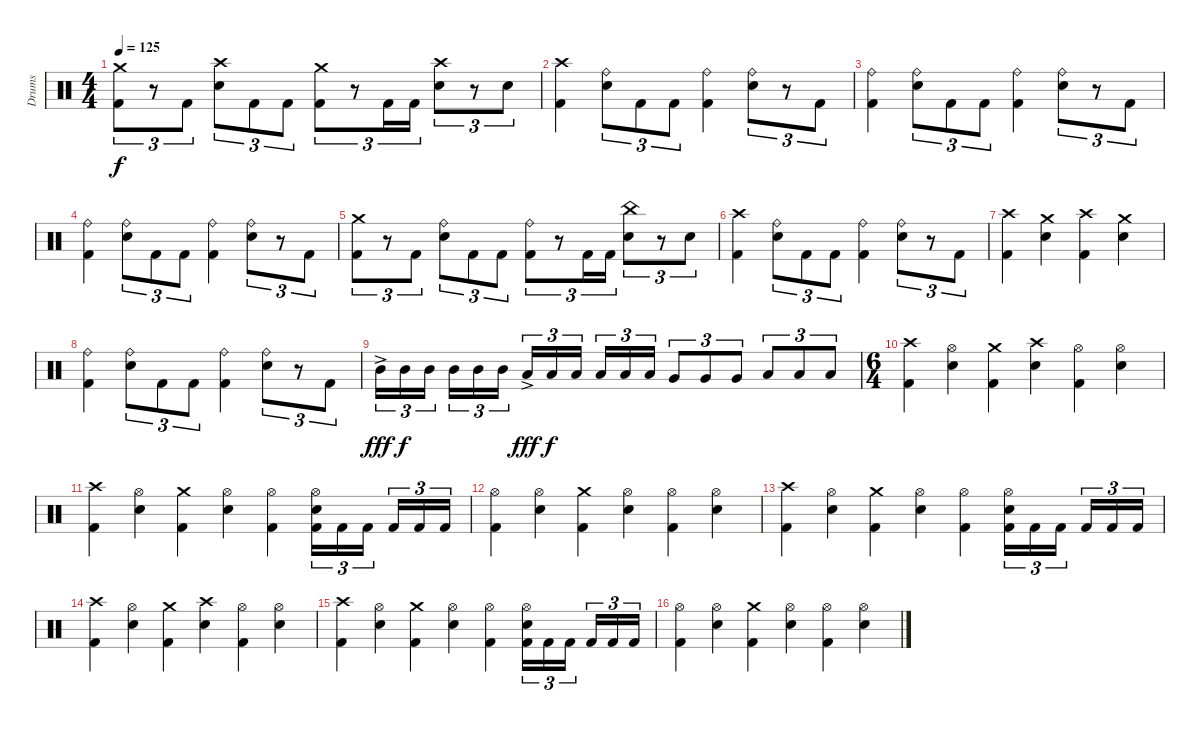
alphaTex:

\track ("Drums" "Drums") {instrument percussion}
\staff {score}
\articulation defaults
\ts (4 4)
\tempo 125
\clef neutral
\ks c
("Crash medium (hit)" "Kick (hit) 2").8{tu (3 2) dy f} r.8{tu (3 2)} "Kick (hit) 2".8{tu (3 2)} ("Crash high (hit)" "Electric Snare (hit)").8{tu (3 2)} "Kick (hit) 2".8{tu (3 2)} "Kick (hit) 2".8{tu (3 2)} ("Crash medium (hit)" "Kick (hit) 2").8{tu (3 2)} r.8{tu (3 2)} "Kick (hit) 2".16{tu (3 2)} "Kick (hit) 2".16{tu (3 2)} ("Crash high (hit)" "Electric Snare (hit)").8{tu (3 2)} r.8{tu (3 2)} "Electric Snare (hit)".8{tu (3 2)} |
("Crash high (hit)" "Kick (hit) 2").4 ("Ride (bell)" "Electric Snare (hit)").8{tu (3 2)} "Kick (hit) 2".8{tu (3 2)} "Kick (hit) 2".8{tu (3 2)} ("Ride (bell)" "Kick (hit) 2").4 ("Ride (bell)" "Electric Snare (hit)").8{tu (3 2)} r.8{tu (3 2)} "Kick (hit) 2".8{tu (3 2)} |
("Ride (bell)" "Kick (hit) 2").4 ("Ride (bell)" "Electric Snare (hit)").8{tu (3 2)} "Kick (hit) 2".8{tu (3 2)} "Kick (hit) 2".8{tu (3 2)} ("Ride (bell)" "Kick (hit) 2").4 ("Ride (bell)" "Electric Snare (hit)").8{tu (3 2)} r.8{tu (3 2)} "Kick (hit) 2".8{tu (3 2)} |
("Ride (bell)" "Kick (hit) 2").4 ("Ride (bell)" "Electric Snare (hit)").8{tu (3 2)} "Kick (hit) 2".8{tu (3 2)} "Kick (hit) 2".8{tu (3 2)} ("Ride (bell)" "Kick (hit) 2").4 ("Ride (bell)" "Electric Snare (hit)").8{tu (3 2)} r.8{tu (3 2)} "Kick (hit) 2".8{tu (3 2)} |
("Crash medium (hit)" "Kick (hit) 2").8{tu (3 2)} r.8{tu (3 2)} "Kick (hit) 2".8{tu (3 2)} ("Ride (bell)" "Electric Snare (hit)").8{tu (3 2)} "Kick (hit) 2".8{tu (3 2)} "Kick (hit) 2".8{tu (3 2)} ("Ride (bell)" "Kick (hit) 2").8{tu (3 2)} r.8{tu (3 2)} "Kick (hit) 2".16{tu (3 2)} "Kick (hit) 2".16{tu (3 2)} ("China (hit)" "Electric Snare (hit)").8{tu (3 2)} r.8{tu (3 2)} "Electric Snare (hit)".8{tu (3 2)} |
("Crash high (hit)" "Kick (hit) 2").4 ("Ride (bell)" "Electric Snare (hit)").8{tu (3 2)} "Kick (hit) 2".8{tu (3 2)} "Kick (hit) 2".8{tu (3 2)} ("Ride (bell)" "Kick (hit) 2").4 ("Ride (bell)" "Electric Snare (hit)").8{tu (3 2)} r.8{tu (3 2)} "Kick (hit) 2".8{tu (3 2)} |
("Crash high (hit)" "Kick (hit) 2").4 ("Crash medium (hit)" "Electric Snare (hit)").4 ("Crash high (hit)" "Kick (hit) 2").4 ("Crash medium (hit)" "Electric Snare (hit)").4 |
("Ride (bell)" "Kick (hit) 2").4 ("Ride (bell)" "Electric Snare (hit)").8{tu (3 2)} "Kick (hit) 2".8{tu (3 2)} "Kick (hit) 2".8{tu (3 2)} ("Ride (bell)" "Kick (hit) 2").4 ("Ride (bell)" "Electric Snare (hit)").8{tu (3 2)} r.8{tu (3 2)} "Kick (hit) 2".8{tu (3 2)} |
"Mid Tom (hit)"{ac}.16{tu (3 2) dy fff} "Mid Tom (hit)".16{tu (3 2) dy f} "Mid Tom (hit)".16{tu (3 2)} "Mid Tom (hit)".16{tu (3 2)} "Mid Tom (hit)".16{tu (3 2)} "Mid Tom (hit)".16{tu (3 2)} "Low Tom (hit)"{ac}.16{tu (3 2) dy fff} "Low Tom (hit)".16{tu (3 2) dy f} "Low Tom (hit)".16{tu (3 2)} "Low Tom (hit)".16{tu (3 2)} "Low Tom (hit)".16{tu (3 2)} "Low Tom (hit)".16{tu (3 2)} "Very Low Tom (hit)".8{tu (3 2)} "Very Low Tom (hit)".8{tu (3 2)} "Very Low Tom (hit)".8{tu (3 2)} "Low Floor Tom (hit)".8{tu (3 2)} "Low Floor Tom (hit)".8{tu (3 2)} "Low Floor Tom (hit)".8{tu (3 2)} |
\ts (6 4)
("Crash high (hit)" "Kick (hit) 2").4 ("Hi-Hat (open)" "Electric Snare (hit)").4 ("Crash medium (hit)" "Kick (hit) 2").4 ("Crash high (hit)" "Electric Snare (hit)").4 ("Hi-Hat (open)" "Kick (hit) 2").4 ("Hi-Hat (open)" "Electric Snare (hit)").4 |
("Crash high (hit)" "Kick (hit) 2").4 ("Hi-Hat (open)" "Electric Snare (hit)").4 ("Crash medium (hit)" "Kick (hit) 2").4 ("Hi-Hat (open)" "Electric Snare (hit)").4 ("Hi-Hat (open)" "Kick (hit) 2").4 ("Hi-Hat (open)" "Electric Snare (hit)" "Kick (hit) 2").16{tu (3 2)} "Kick (hit) 2".16{tu (3 2)} "Kick (hit) 2".16{tu (3 2)} "Kick (hit) 2".16{tu (3 2)} "Kick (hit) 2".16{tu (3 2)} "Kick (hit) 2".16{tu (3 2)} |
("Hi-Hat (open)" "Kick (hit) 2").4 ("Hi-Hat (open)" "Electric Snare (hit)").4 ("Crash medium (hit)" "Kick (hit) 2").4 ("Hi-Hat (open)" "Electric Snare (hit)").4 ("Hi-Hat (open)" "Kick (hit) 2").4 ("Hi-Hat (open)" "Electric Snare (hit)").4 |
("Crash high (hit)" "Kick (hit) 2").4 ("Hi-Hat (open)" "Electric Snare (hit)").4 ("Crash medium (hit)" "Kick (hit) 2").4 ("Hi-Hat (open)" "Electric Snare (hit)").4 ("Hi-Hat (open)" "Kick (hit) 2").4 ("Hi-Hat (open)" "Electric Snare (hit)" "Kick (hit) 2").16{tu (3 2)} "Kick (hit) 2".16{tu (3 2)} "Kick (hit) 2".16{tu (3 2)} "Kick (hit) 2".16{tu (3 2)} "Kick (hit) 2".16{tu (3 2)} "Kick (hit) 2".16{tu (3 2)} |
("Crash high (hit)" "Kick (hit) 2").4 ("Hi-Hat (open)" "Electric Snare (hit)").4 ("Crash medium (hit)" "Kick (hit) 2").4 ("Crash high (hit)" "Electric Snare (hit)").4 ("Hi-Hat (open)" "Kick (hit) 2").4 ("Hi-Hat (open)" "Electric Snare (hit)").4 |
("Crash high (hit)" "Kick (hit) 2").4 ("Hi-Hat (open)" "Electric Snare (hit)").4 ("Crash medium (hit)" "Kick (hit) 2").4 ("Hi-Hat (open)" "Electric Snare (hit)").4 ("Hi-Hat (open)" "Kick (hit) 2").4 ("Hi-Hat (open)" "Electric Snare (hit)" "Kick (hit) 2").16{tu (3 2)} "Kick (hit) 2".16{tu (3 2)} "Kick (hit) 2".16{tu (3 2)} "Kick (hit) 2".16{tu (3 2)} "Kick (hit) 2".16{tu (3 2)} "Kick (hit) 2".16{tu (3 2)} |
("Hi-Hat (open)" "Kick (hit) 2").4 ("Hi-Hat (open)" "Electric Snare (hit)").4 ("Crash medium (hit)" "Kick (hit) 2").4 ("Hi-Hat (open)" "Electric Snare (hit)").4 ("Hi-Hat (open)" "Kick (hit) 2").4 ("Hi-Hat (open)" "Electric Snare (hit)").4
